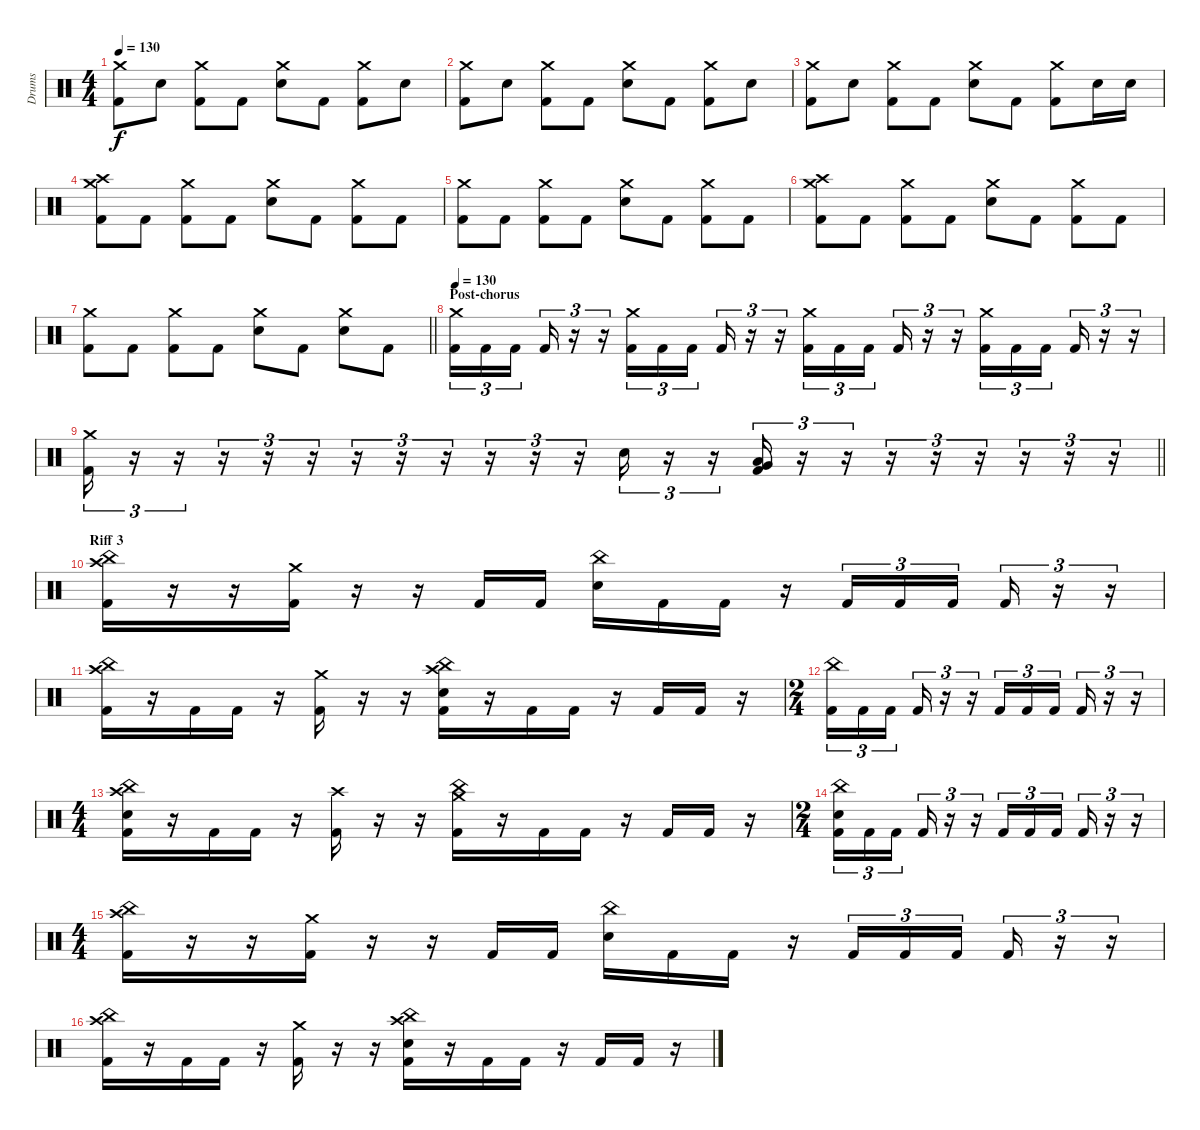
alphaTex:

\track ("Drums" "Drums") {instrument percussion}
\staff {score}
\articulation defaults
\ts (4 4)
\tempo 130
\clef neutral
\ks c
("Crash medium (hit)" "Kick (hit) 2").8{dy f} "Snare (hit) 2".8 ("Crash medium (hit)" "Kick (hit) 2").8 "Kick (hit) 2".8 ("Crash medium (hit)" "Snare (hit) 2").8 "Kick (hit) 2".8 ("Crash medium (hit)" "Kick (hit) 2").8 "Snare (hit) 2".8 |
("Crash medium (hit)" "Kick (hit) 2").8 "Snare (hit) 2".8 ("Crash medium (hit)" "Kick (hit) 2").8 "Kick (hit) 2".8 ("Crash medium (hit)" "Snare (hit) 2").8 "Kick (hit) 2".8 ("Crash medium (hit)" "Kick (hit) 2").8 "Snare (hit) 2".8 |
("Crash medium (hit)" "Kick (hit) 2").8 "Snare (hit) 2".8 ("Crash medium (hit)" "Kick (hit) 2").8 "Kick (hit) 2".8 ("Crash medium (hit)" "Snare (hit) 2").8 "Kick (hit) 2".8 ("Crash medium (hit)" "Kick (hit) 2").8 "Snare (hit) 2".16 "Snare (hit) 2".16 |
("Crash high (hit)" "Crash medium (hit)" "Kick (hit) 2").8 "Kick (hit) 2".8 ("Crash medium (hit)" "Kick (hit) 2").8 "Kick (hit) 2".8 ("Crash medium (hit)" "Snare (hit) 2").8 "Kick (hit) 2".8 ("Crash medium (hit)" "Kick (hit) 2").8 "Kick (hit) 2".8 |
("Crash medium (hit)" "Kick (hit) 2").8 "Kick (hit) 2".8 ("Crash medium (hit)" "Kick (hit) 2").8 "Kick (hit) 2".8 ("Crash medium (hit)" "Snare (hit) 2").8 "Kick (hit) 2".8 ("Crash medium (hit)" "Kick (hit) 2").8 "Kick (hit) 2".8 |
("Crash high (hit)" "Crash medium (hit)" "Kick (hit) 2").8 "Kick (hit) 2".8 ("Crash medium (hit)" "Kick (hit) 2").8 "Kick (hit) 2".8 ("Crash medium (hit)" "Snare (hit) 2").8 "Kick (hit) 2".8 ("Crash medium (hit)" "Kick (hit) 2").8 "Kick (hit) 2".8 |
\barLineRight lightlight
("Crash medium (hit)" "Kick (hit) 2").8 "Kick (hit) 2".8 ("Crash medium (hit)" "Kick (hit) 2").8 "Kick (hit) 2".8 ("Crash medium (hit)" "Snare (hit) 2").8 "Kick (hit) 2".8 ("Crash medium (hit)" "Snare (hit) 2").8 "Kick (hit) 2".8 |
\section ("" "Post-chorus")
\tempo 130
("Crash medium (hit)" "Kick (hit) 2").16{tu (3 2)} "Kick (hit) 2".16{tu (3 2)} "Kick (hit) 2".16{tu (3 2) beam splitsecondary} "Kick (hit) 2".16{tu (3 2)} r.16{tu (3 2)} r.16{tu (3 2)} ("Crash medium (hit)" "Kick (hit) 2").16{tu (3 2)} "Kick (hit) 2".16{tu (3 2)} "Kick (hit) 2".16{tu (3 2) beam splitsecondary} "Kick (hit) 2".16{tu (3 2)} r.16{tu (3 2)} r.16{tu (3 2)} ("Crash medium (hit)" "Kick (hit) 2").16{tu (3 2)} "Kick (hit) 2".16{tu (3 2)} "Kick (hit) 2".16{tu (3 2) beam splitsecondary} "Kick (hit) 2".16{tu (3 2)} r.16{tu (3 2)} r.16{tu (3 2)} ("Crash medium (hit)" "Kick (hit) 2").16{tu (3 2)} "Kick (hit) 2".16{tu (3 2)} "Kick (hit) 2".16{tu (3 2) beam splitsecondary} "Kick (hit) 2".16{tu (3 2)} r.16{tu (3 2)} r.16{tu (3 2)} |
\barLineRight lightlight
("Crash medium (hit)" "Kick (hit) 2").16{tu (3 2)} r.16{tu (3 2)} r.16{tu (3 2)} r.16{tu (3 2)} r.16{tu (3 2)} r.16{tu (3 2)} r.16{tu (3 2)} r.16{tu (3 2)} r.16{tu (3 2)} r.16{tu (3 2)} r.16{tu (3 2)} r.16{tu (3 2)} "Snare (hit) 2".16{tu (3 2)} r.16{tu (3 2)} r.16{tu (3 2)} ("Very Low Tom (hit)" "Low Floor Tom (hit)" "Kick (hit) 2").16{tu (3 2)} r.16{tu (3 2)} r.16{tu (3 2)} r.16{tu (3 2)} r.16{tu (3 2)} r.16{tu (3 2)} r.16{tu (3 2)} r.16{tu (3 2)} r.16{tu (3 2)} |
\section ("" "Riff 3")
("China (hit)" "Crash high (hit)" "Kick (hit) 2").16 r.16 r.16 ("Crash medium (hit)" "Kick (hit) 2").16 r.16 r.16 "Kick (hit) 2".16 "Kick (hit) 2".16 ("China (hit)" "Snare (hit) 2").16 "Kick (hit) 2".16 "Kick (hit) 2".16 r.16 "Kick (hit) 2".16{tu (3 2)} "Kick (hit) 2".16{tu (3 2)} "Kick (hit) 2".16{tu (3 2) beam splitsecondary} "Kick (hit) 2".16{tu (3 2)} r.16{tu (3 2)} r.16{tu (3 2)} |
("China (hit)" "Crash high (hit)" "Kick (hit) 2").16 r.16 "Kick (hit) 2".16 "Kick (hit) 2".16 r.16 ("Crash medium (hit)" "Kick (hit) 2").16 r.16 r.16 ("China (hit)" "Crash high (hit)" "Snare (hit) 2" "Kick (hit) 2").16 r.16 "Kick (hit) 2".16 "Kick (hit) 2".16 r.16 "Kick (hit) 2".16 "Kick (hit) 2".16 r.16 |
\ts (2 4)
("China (hit)" "Kick (hit) 2").16{tu (3 2)} "Kick (hit) 2".16{tu (3 2)} "Kick (hit) 2".16{tu (3 2) beam splitsecondary} "Kick (hit) 2".16{tu (3 2)} r.16{tu (3 2)} r.16{tu (3 2)} "Kick (hit) 2".16{tu (3 2)} "Kick (hit) 2".16{tu (3 2)} "Kick (hit) 2".16{tu (3 2) beam splitsecondary} "Kick (hit) 2".16{tu (3 2)} r.16{tu (3 2)} r.16{tu (3 2)} |
\ts (4 4)
("Crash high (hit)" "China (hit)" "Snare (hit) 2" "Kick (hit) 2").16 r.16 "Kick (hit) 2".16 "Kick (hit) 2".16 r.16 ("Crash high (hit)" "Kick (hit) 2").16 r.16 r.16 ("Crash medium (hit)" "China (hit)" "Kick (hit) 2").16 r.16 "Kick (hit) 2".16 "Kick (hit) 2".16 r.16 "Kick (hit) 2".16 "Kick (hit) 2".16 r.16 |
\ts (2 4)
("China (hit)" "Snare (hit) 2" "Kick (hit) 2").16{tu (3 2)} "Kick (hit) 2".16{tu (3 2)} "Kick (hit) 2".16{tu (3 2) beam splitsecondary} "Kick (hit) 2".16{tu (3 2)} r.16{tu (3 2)} r.16{tu (3 2)} "Kick (hit) 2".16{tu (3 2)} "Kick (hit) 2".16{tu (3 2)} "Kick (hit) 2".16{tu (3 2) beam splitsecondary} "Kick (hit) 2".16{tu (3 2)} r.16{tu (3 2)} r.16{tu (3 2)} |
\ts (4 4)
("China (hit)" "Crash high (hit)" "Kick (hit) 2").16 r.16 r.16 ("Crash medium (hit)" "Kick (hit) 2").16 r.16 r.16 "Kick (hit) 2".16 "Kick (hit) 2".16 ("China (hit)" "Snare (hit) 2").16 "Kick (hit) 2".16 "Kick (hit) 2".16 r.16 "Kick (hit) 2".16{tu (3 2)} "Kick (hit) 2".16{tu (3 2)} "Kick (hit) 2".16{tu (3 2) beam splitsecondary} "Kick (hit) 2".16{tu (3 2)} r.16{tu (3 2)} r.16{tu (3 2)} |
("China (hit)" "Crash high (hit)" "Kick (hit) 2").16 r.16 "Kick (hit) 2".16 "Kick (hit) 2".16 r.16 ("Crash medium (hit)" "Kick (hit) 2").16 r.16 r.16 ("China (hit)" "Crash high (hit)" "Snare (hit) 2" "Kick (hit) 2").16 r.16 "Kick (hit) 2".16 "Kick (hit) 2".16 r.16 "Kick (hit) 2".16 "Kick (hit) 2".16 r.16
